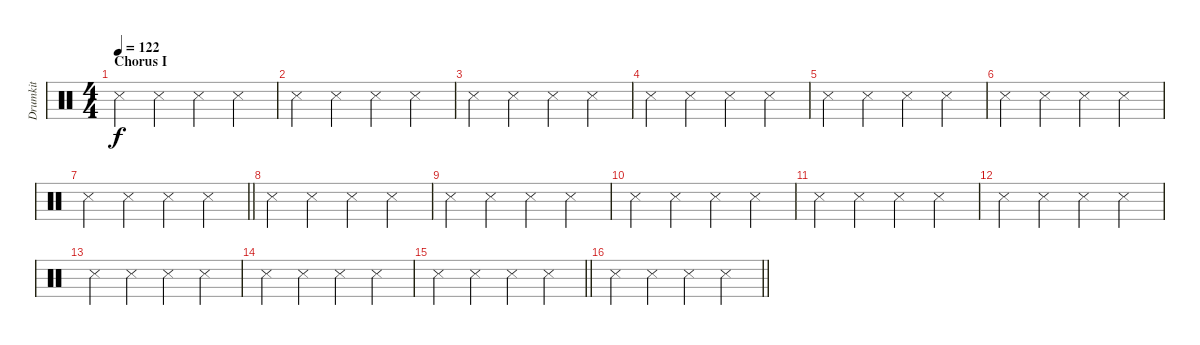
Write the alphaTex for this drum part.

\track ("Drumkit" "Drumkit") {mute instrument percussion}
\staff {score}
\articulation defaults
\ts (4 4)
\section ("" "Chorus I")
\tempo 122
\clef neutral
\ks c "Snare (side stick) 3".4{dy f} "Snare (side stick) 3".4 "Snare (side stick) 3".4 "Snare (side stick) 3".4
|
"Snare (side stick) 3".4 "Snare (side stick) 3".4 "Snare (side stick) 3".4 "Snare (side stick) 3".4 |
"Snare (side stick) 3".4 "Snare (side stick) 3".4 "Snare (side stick) 3".4 "Snare (side stick) 3".4 |
"Snare (side stick) 3".4 "Snare (side stick) 3".4 "Snare (side stick) 3".4 "Snare (side stick) 3".4 |
"Snare (side stick) 3".4 "Snare (side stick) 3".4 "Snare (side stick) 3".4 "Snare (side stick) 3".4 |
"Snare (side stick) 3".4 "Snare (side stick) 3".4 "Snare (side stick) 3".4 "Snare (side stick) 3".4 |
\barLineRight lightlight "Snare (side stick) 3".4 "Snare (side stick) 3".4 "Snare (side stick) 3".4 "Snare (side stick) 3".4
|
"Snare (side stick) 3".4 "Snare (side stick) 3".4 "Snare (side stick) 3".4 "Snare (side stick) 3".4 |
"Snare (side stick) 3".4 "Snare (side stick) 3".4 "Snare (side stick) 3".4 "Snare (side stick) 3".4 |
"Snare (side stick) 3".4 "Snare (side stick) 3".4 "Snare (side stick) 3".4 "Snare (side stick) 3".4 |
"Snare (side stick) 3".4 "Snare (side stick) 3".4 "Snare (side stick) 3".4 "Snare (side stick) 3".4 |
"Snare (side stick) 3".4 "Snare (side stick) 3".4 "Snare (side stick) 3".4 "Snare (side stick) 3".4 |
"Snare (side stick) 3".4 "Snare (side stick) 3".4 "Snare (side stick) 3".4 "Snare (side stick) 3".4 |
"Snare (side stick) 3".4 "Snare (side stick) 3".4 "Snare (side stick) 3".4 "Snare (side stick) 3".4 |
\barLineRight lightlight "Snare (side stick) 3".4 "Snare (side stick) 3".4 "Snare (side stick) 3".4 "Snare (side stick) 3".4
|
\barLineRight lightlight "Snare (side stick) 3".4 "Snare (side stick) 3".4 "Snare (side stick) 3".4 "Snare (side stick) 3".4
